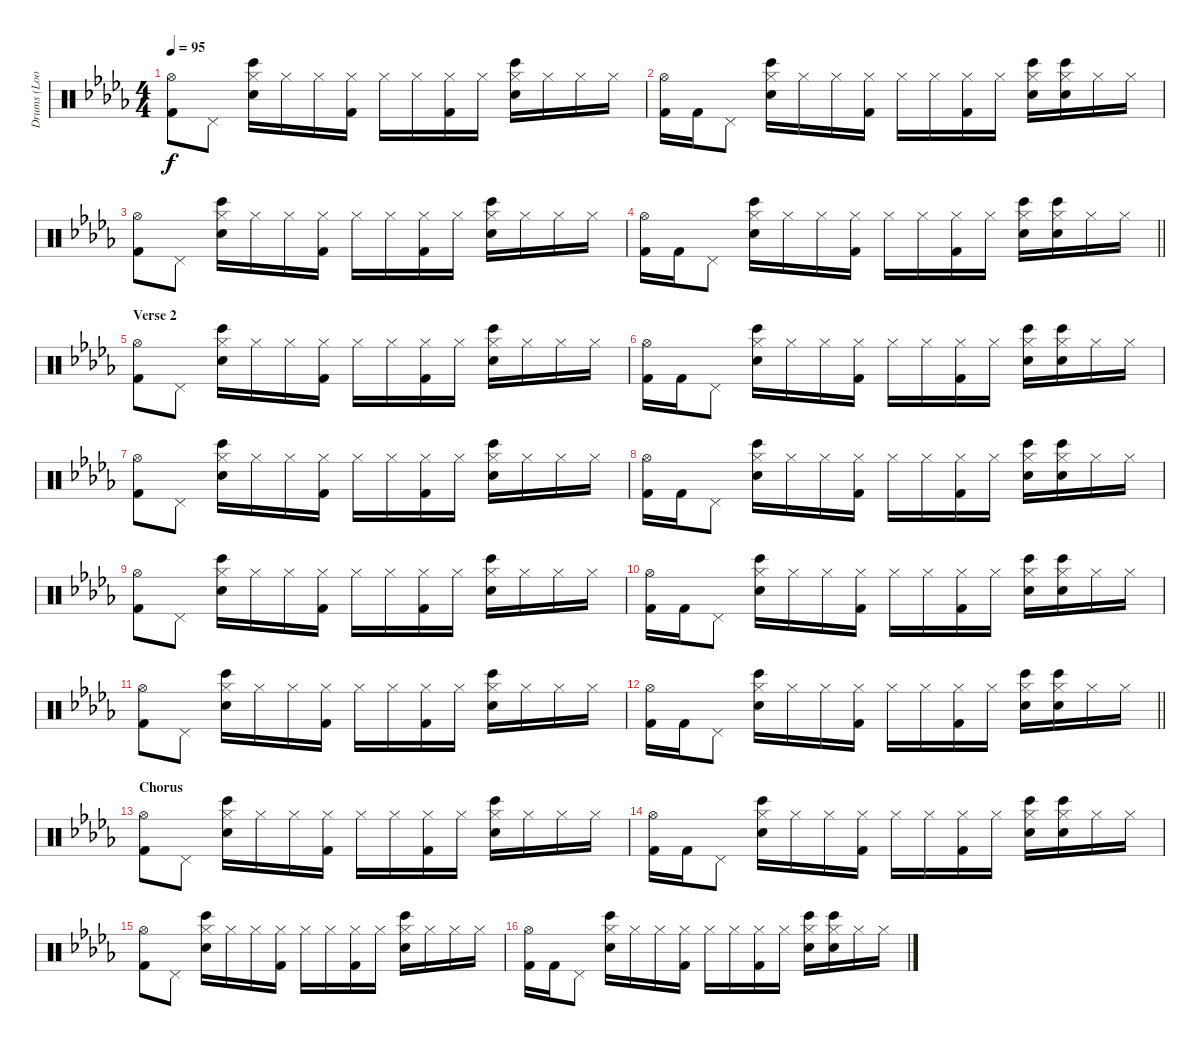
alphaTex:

\track ("Drums (Loops)" "Drums (Loo") {instrument percussion}
\staff {score}
\articulation defaults
\ts (4 4)
\tempo 95
\clef neutral
\ks db
("Hi-Hat (open)" "Kick (hit) 2").8{dy f} "Pedal Hi-Hat (hit)".8 ("Hi-Hat (closed)" "Snare (hit) 2" "Bongo High (hit)").16 "Hi-Hat (closed)".16 "Hi-Hat (closed)".16 ("Hi-Hat (closed)" "Kick (hit) 2").16 "Hi-Hat (closed)".16 "Hi-Hat (closed)".16 ("Hi-Hat (closed)" "Kick (hit) 2").16 "Hi-Hat (closed)".16 ("Hi-Hat (closed)" "Snare (hit) 2" "Bongo High (hit)").16 "Hi-Hat (closed)".16 "Hi-Hat (closed)".16 "Hi-Hat (closed)".16 |
("Hi-Hat (open)" "Kick (hit) 2").16 "Kick (hit) 2".16 "Pedal Hi-Hat (hit)".8 ("Hi-Hat (closed)" "Snare (hit) 2" "Bongo High (hit)").16 "Hi-Hat (closed)".16 "Hi-Hat (closed)".16 ("Hi-Hat (closed)" "Kick (hit) 2").16 "Hi-Hat (closed)".16 "Hi-Hat (closed)".16 ("Hi-Hat (closed)" "Kick (hit) 2").16 "Hi-Hat (closed)".16 ("Hi-Hat (closed)" "Snare (hit) 2" "Bongo High (hit)").16 ("Hi-Hat (closed)" "Snare (hit) 2" "Bongo High (hit)").16 "Hi-Hat (closed)".16 "Hi-Hat (closed)".16 |
("Hi-Hat (open)" "Kick (hit) 2").8 "Pedal Hi-Hat (hit)".8 ("Hi-Hat (closed)" "Snare (hit) 2" "Bongo High (hit)").16 "Hi-Hat (closed)".16 "Hi-Hat (closed)".16 ("Hi-Hat (closed)" "Kick (hit) 2").16 "Hi-Hat (closed)".16 "Hi-Hat (closed)".16 ("Hi-Hat (closed)" "Kick (hit) 2").16 "Hi-Hat (closed)".16 ("Hi-Hat (closed)" "Snare (hit) 2" "Bongo High (hit)").16 "Hi-Hat (closed)".16 "Hi-Hat (closed)".16 "Hi-Hat (closed)".16 |
\barLineRight lightlight
("Hi-Hat (open)" "Kick (hit) 2").16 "Kick (hit) 2".16 "Pedal Hi-Hat (hit)".8 ("Hi-Hat (closed)" "Snare (hit) 2" "Bongo High (hit)").16 "Hi-Hat (closed)".16 "Hi-Hat (closed)".16 ("Hi-Hat (closed)" "Kick (hit) 2").16 "Hi-Hat (closed)".16 "Hi-Hat (closed)".16 ("Hi-Hat (closed)" "Kick (hit) 2").16 "Hi-Hat (closed)".16 ("Hi-Hat (closed)" "Snare (hit) 2" "Bongo High (hit)").16 ("Hi-Hat (closed)" "Snare (hit) 2" "Bongo High (hit)").16 "Hi-Hat (closed)".16 "Hi-Hat (closed)".16 |
\section ("" "Verse 2")
("Hi-Hat (open)" "Kick (hit) 2").8 "Pedal Hi-Hat (hit)".8 ("Hi-Hat (closed)" "Snare (hit) 2" "Bongo High (hit)").16 "Hi-Hat (closed)".16 "Hi-Hat (closed)".16 ("Hi-Hat (closed)" "Kick (hit) 2").16 "Hi-Hat (closed)".16 "Hi-Hat (closed)".16 ("Hi-Hat (closed)" "Kick (hit) 2").16 "Hi-Hat (closed)".16 ("Hi-Hat (closed)" "Snare (hit) 2" "Bongo High (hit)").16 "Hi-Hat (closed)".16 "Hi-Hat (closed)".16 "Hi-Hat (closed)".16 |
("Hi-Hat (open)" "Kick (hit) 2").16 "Kick (hit) 2".16 "Pedal Hi-Hat (hit)".8 ("Hi-Hat (closed)" "Snare (hit) 2" "Bongo High (hit)").16 "Hi-Hat (closed)".16 "Hi-Hat (closed)".16 ("Hi-Hat (closed)" "Kick (hit) 2").16 "Hi-Hat (closed)".16 "Hi-Hat (closed)".16 ("Hi-Hat (closed)" "Kick (hit) 2").16 "Hi-Hat (closed)".16 ("Hi-Hat (closed)" "Snare (hit) 2" "Bongo High (hit)").16 ("Hi-Hat (closed)" "Snare (hit) 2" "Bongo High (hit)").16 "Hi-Hat (closed)".16 "Hi-Hat (closed)".16 |
("Hi-Hat (open)" "Kick (hit) 2").8 "Pedal Hi-Hat (hit)".8 ("Hi-Hat (closed)" "Snare (hit) 2" "Bongo High (hit)").16 "Hi-Hat (closed)".16 "Hi-Hat (closed)".16 ("Hi-Hat (closed)" "Kick (hit) 2").16 "Hi-Hat (closed)".16 "Hi-Hat (closed)".16 ("Hi-Hat (closed)" "Kick (hit) 2").16 "Hi-Hat (closed)".16 ("Hi-Hat (closed)" "Snare (hit) 2" "Bongo High (hit)").16 "Hi-Hat (closed)".16 "Hi-Hat (closed)".16 "Hi-Hat (closed)".16 |
("Hi-Hat (open)" "Kick (hit) 2").16 "Kick (hit) 2".16 "Pedal Hi-Hat (hit)".8 ("Hi-Hat (closed)" "Snare (hit) 2" "Bongo High (hit)").16 "Hi-Hat (closed)".16 "Hi-Hat (closed)".16 ("Hi-Hat (closed)" "Kick (hit) 2").16 "Hi-Hat (closed)".16 "Hi-Hat (closed)".16 ("Hi-Hat (closed)" "Kick (hit) 2").16 "Hi-Hat (closed)".16 ("Hi-Hat (closed)" "Snare (hit) 2" "Bongo High (hit)").16 ("Hi-Hat (closed)" "Snare (hit) 2" "Bongo High (hit)").16 "Hi-Hat (closed)".16 "Hi-Hat (closed)".16 |
("Hi-Hat (open)" "Kick (hit) 2").8 "Pedal Hi-Hat (hit)".8 ("Hi-Hat (closed)" "Snare (hit) 2" "Bongo High (hit)").16 "Hi-Hat (closed)".16 "Hi-Hat (closed)".16 ("Hi-Hat (closed)" "Kick (hit) 2").16 "Hi-Hat (closed)".16 "Hi-Hat (closed)".16 ("Hi-Hat (closed)" "Kick (hit) 2").16 "Hi-Hat (closed)".16 ("Hi-Hat (closed)" "Snare (hit) 2" "Bongo High (hit)").16 "Hi-Hat (closed)".16 "Hi-Hat (closed)".16 "Hi-Hat (closed)".16 |
("Hi-Hat (open)" "Kick (hit) 2").16 "Kick (hit) 2".16 "Pedal Hi-Hat (hit)".8 ("Hi-Hat (closed)" "Snare (hit) 2" "Bongo High (hit)").16 "Hi-Hat (closed)".16 "Hi-Hat (closed)".16 ("Hi-Hat (closed)" "Kick (hit) 2").16 "Hi-Hat (closed)".16 "Hi-Hat (closed)".16 ("Hi-Hat (closed)" "Kick (hit) 2").16 "Hi-Hat (closed)".16 ("Hi-Hat (closed)" "Snare (hit) 2" "Bongo High (hit)").16 ("Hi-Hat (closed)" "Snare (hit) 2" "Bongo High (hit)").16 "Hi-Hat (closed)".16 "Hi-Hat (closed)".16 |
("Hi-Hat (open)" "Kick (hit) 2").8 "Pedal Hi-Hat (hit)".8 ("Hi-Hat (closed)" "Snare (hit) 2" "Bongo High (hit)").16 "Hi-Hat (closed)".16 "Hi-Hat (closed)".16 ("Hi-Hat (closed)" "Kick (hit) 2").16 "Hi-Hat (closed)".16 "Hi-Hat (closed)".16 ("Hi-Hat (closed)" "Kick (hit) 2").16 "Hi-Hat (closed)".16 ("Hi-Hat (closed)" "Snare (hit) 2" "Bongo High (hit)").16 "Hi-Hat (closed)".16 "Hi-Hat (closed)".16 "Hi-Hat (closed)".16 |
\barLineRight lightlight
("Hi-Hat (open)" "Kick (hit) 2").16 "Kick (hit) 2".16 "Pedal Hi-Hat (hit)".8 ("Hi-Hat (closed)" "Snare (hit) 2" "Bongo High (hit)").16 "Hi-Hat (closed)".16 "Hi-Hat (closed)".16 ("Hi-Hat (closed)" "Kick (hit) 2").16 "Hi-Hat (closed)".16 "Hi-Hat (closed)".16 ("Hi-Hat (closed)" "Kick (hit) 2").16 "Hi-Hat (closed)".16 ("Hi-Hat (closed)" "Snare (hit) 2" "Bongo High (hit)").16 ("Hi-Hat (closed)" "Snare (hit) 2" "Bongo High (hit)").16 "Hi-Hat (closed)".16 "Hi-Hat (closed)".16 |
\section ("" "Chorus")
("Hi-Hat (open)" "Kick (hit) 2").8 "Pedal Hi-Hat (hit)".8 ("Hi-Hat (closed)" "Snare (hit) 2" "Bongo High (hit)").16 "Hi-Hat (closed)".16 "Hi-Hat (closed)".16 ("Hi-Hat (closed)" "Kick (hit) 2").16 "Hi-Hat (closed)".16 "Hi-Hat (closed)".16 ("Hi-Hat (closed)" "Kick (hit) 2").16 "Hi-Hat (closed)".16 ("Hi-Hat (closed)" "Snare (hit) 2" "Bongo High (hit)").16 "Hi-Hat (closed)".16 "Hi-Hat (closed)".16 "Hi-Hat (closed)".16 |
("Hi-Hat (open)" "Kick (hit) 2").16 "Kick (hit) 2".16 "Pedal Hi-Hat (hit)".8 ("Hi-Hat (closed)" "Snare (hit) 2" "Bongo High (hit)").16 "Hi-Hat (closed)".16 "Hi-Hat (closed)".16 ("Hi-Hat (closed)" "Kick (hit) 2").16 "Hi-Hat (closed)".16 "Hi-Hat (closed)".16 ("Hi-Hat (closed)" "Kick (hit) 2").16 "Hi-Hat (closed)".16 ("Hi-Hat (closed)" "Snare (hit) 2" "Bongo High (hit)").16 ("Hi-Hat (closed)" "Snare (hit) 2" "Bongo High (hit)").16 "Hi-Hat (closed)".16 "Hi-Hat (closed)".16 |
("Hi-Hat (open)" "Kick (hit) 2").8 "Pedal Hi-Hat (hit)".8 ("Hi-Hat (closed)" "Snare (hit) 2" "Bongo High (hit)").16 "Hi-Hat (closed)".16 "Hi-Hat (closed)".16 ("Hi-Hat (closed)" "Kick (hit) 2").16 "Hi-Hat (closed)".16 "Hi-Hat (closed)".16 ("Hi-Hat (closed)" "Kick (hit) 2").16 "Hi-Hat (closed)".16 ("Hi-Hat (closed)" "Snare (hit) 2" "Bongo High (hit)").16 "Hi-Hat (closed)".16 "Hi-Hat (closed)".16 "Hi-Hat (closed)".16 |
("Hi-Hat (open)" "Kick (hit) 2").16 "Kick (hit) 2".16 "Pedal Hi-Hat (hit)".8 ("Hi-Hat (closed)" "Snare (hit) 2" "Bongo High (hit)").16 "Hi-Hat (closed)".16 "Hi-Hat (closed)".16 ("Hi-Hat (closed)" "Kick (hit) 2").16 "Hi-Hat (closed)".16 "Hi-Hat (closed)".16 ("Hi-Hat (closed)" "Kick (hit) 2").16 "Hi-Hat (closed)".16 ("Hi-Hat (closed)" "Snare (hit) 2" "Bongo High (hit)").16 ("Hi-Hat (closed)" "Snare (hit) 2" "Bongo High (hit)").16 "Hi-Hat (closed)".16 "Hi-Hat (closed)".16
